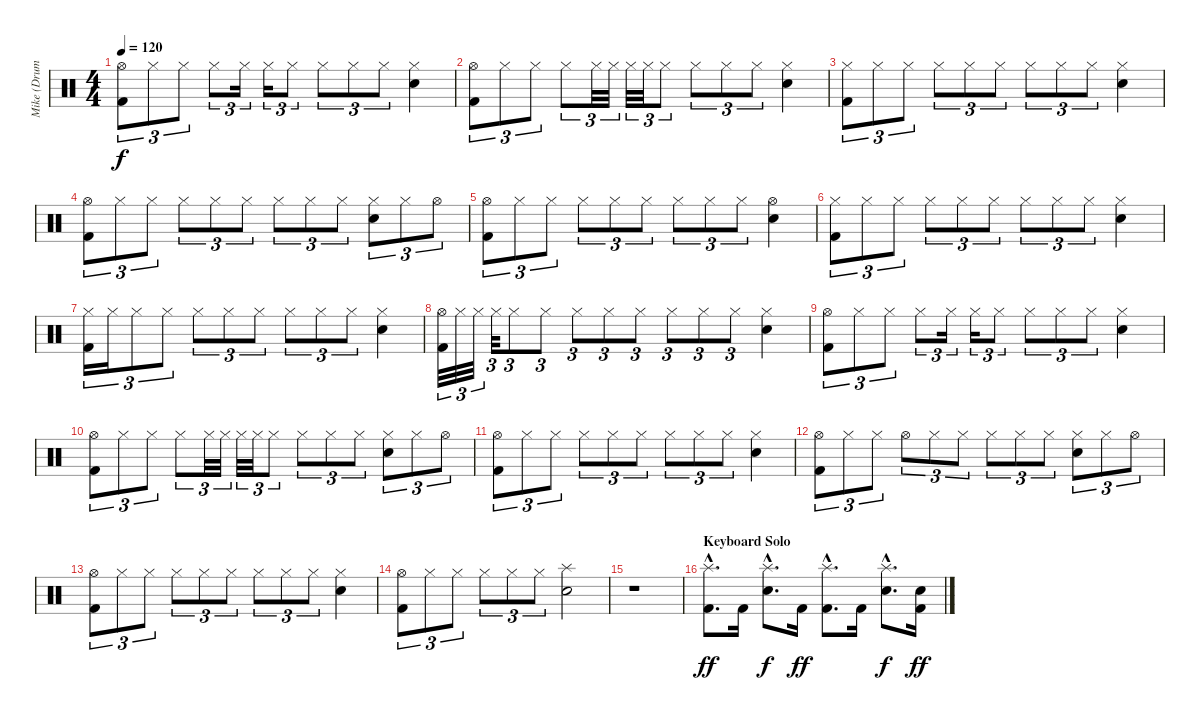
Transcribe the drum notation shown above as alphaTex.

\track ("Mike (Drums)" "Mike (Drum") {instrument percussion}
\staff {score}
\articulation defaults
\ts (4 4)
\tempo 120
\clef neutral
\ks c
("Hi-Hat (open)" "Kick (hit) 2").8{tu (3 2) dy f} "Hi-Hat (closed)".8{tu (3 2)} "Hi-Hat (closed)".8{tu (3 2)} "Hi-Hat (closed)".8{tu (3 2)} "Hi-Hat (closed)".16{tu (3 2)} "Hi-Hat (closed)".16{tu (3 2)} "Hi-Hat (closed)".8{tu (3 2)} "Hi-Hat (closed)".8{tu (3 2)} "Hi-Hat (closed)".8{tu (3 2)} "Hi-Hat (closed)".8{tu (3 2)} ("Hi-Hat (closed)" "Snare (hit) 2").4 |
("Hi-Hat (open)" "Kick (hit) 2").8{tu (3 2)} "Hi-Hat (closed)".8{tu (3 2)} "Hi-Hat (closed)".8{tu (3 2)} "Hi-Hat (closed)".8{tu (3 2)} "Hi-Hat (closed)".32{tu (3 2)} "Hi-Hat (closed)".32{tu (3 2)} "Hi-Hat (closed)".32{tu (3 2)} "Hi-Hat (closed)".32{tu (3 2)} "Hi-Hat (closed)".8{tu (3 2)} "Hi-Hat (closed)".8{tu (3 2)} "Hi-Hat (closed)".8{tu (3 2)} "Hi-Hat (closed)".8{tu (3 2)} ("Hi-Hat (closed)" "Snare (hit) 2").4 |
("Hi-Hat (closed)" "Kick (hit) 2").8{tu (3 2)} "Hi-Hat (closed)".8{tu (3 2)} "Hi-Hat (closed)".8{tu (3 2)} "Hi-Hat (closed)".8{tu (3 2)} "Hi-Hat (closed)".8{tu (3 2)} "Hi-Hat (closed)".8{tu (3 2)} "Hi-Hat (closed)".8{tu (3 2)} "Hi-Hat (closed)".8{tu (3 2)} "Hi-Hat (closed)".8{tu (3 2)} ("Hi-Hat (closed)" "Snare (hit) 2").4 |
("Hi-Hat (open)" "Kick (hit) 2").8{tu (3 2)} "Hi-Hat (closed)".8{tu (3 2)} "Hi-Hat (closed)".8{tu (3 2)} "Hi-Hat (closed)".8{tu (3 2)} "Hi-Hat (closed)".8{tu (3 2)} "Hi-Hat (closed)".8{tu (3 2)} "Hi-Hat (closed)".8{tu (3 2)} "Hi-Hat (closed)".8{tu (3 2)} "Hi-Hat (closed)".8{tu (3 2)} ("Hi-Hat (closed)" "Snare (hit) 2").8{tu (3 2)} "Hi-Hat (closed)".8{tu (3 2)} "Hi-Hat (open)".8{tu (3 2)} |
("Hi-Hat (open)" "Kick (hit) 2").8{tu (3 2)} "Hi-Hat (closed)".8{tu (3 2)} "Hi-Hat (closed)".8{tu (3 2)} "Hi-Hat (closed)".8{tu (3 2)} "Hi-Hat (closed)".8{tu (3 2)} "Hi-Hat (closed)".8{tu (3 2)} "Hi-Hat (closed)".8{tu (3 2)} "Hi-Hat (closed)".8{tu (3 2)} "Hi-Hat (closed)".8{tu (3 2)} ("Hi-Hat (open)" "Snare (hit) 2").4 |
("Hi-Hat (closed)" "Kick (hit) 2").8{tu (3 2)} "Hi-Hat (closed)".8{tu (3 2)} "Hi-Hat (closed)".8{tu (3 2)} "Hi-Hat (closed)".8{tu (3 2)} "Hi-Hat (closed)".8{tu (3 2)} "Hi-Hat (closed)".8{tu (3 2)} "Hi-Hat (closed)".8{tu (3 2)} "Hi-Hat (closed)".8{tu (3 2)} "Hi-Hat (closed)".8{tu (3 2)} ("Hi-Hat (closed)" "Snare (hit) 2").4 |
("Hi-Hat (closed)" "Kick (hit) 2").16{tu (3 2)} "Hi-Hat (closed)".16{tu (3 2)} "Hi-Hat (closed)".8{tu (3 2)} "Hi-Hat (closed)".8{tu (3 2)} "Hi-Hat (closed)".8{tu (3 2)} "Hi-Hat (closed)".8{tu (3 2)} "Hi-Hat (closed)".8{tu (3 2)} "Hi-Hat (closed)".8{tu (3 2)} "Hi-Hat (closed)".8{tu (3 2)} "Hi-Hat (closed)".8{tu (3 2)} ("Hi-Hat (closed)" "Snare (hit) 2").4 |
("Hi-Hat (open)" "Kick (hit) 2").32{tu (3 2)} "Hi-Hat (closed)".32{tu (3 2)} "Hi-Hat (closed)".32{tu (3 2)} "Hi-Hat (closed)".32{tu (3 2)} "Hi-Hat (closed)".8{tu (3 2)} "Hi-Hat (closed)".8{tu (3 2)} "Hi-Hat (closed)".8{tu (3 2)} "Hi-Hat (closed)".8{tu (3 2)} "Hi-Hat (closed)".8{tu (3 2)} "Hi-Hat (closed)".8{tu (3 2)} "Hi-Hat (closed)".8{tu (3 2)} "Hi-Hat (closed)".8{tu (3 2)} ("Hi-Hat (closed)" "Snare (hit) 2").4 |
("Hi-Hat (open)" "Kick (hit) 2").8{tu (3 2)} "Hi-Hat (closed)".8{tu (3 2)} "Hi-Hat (closed)".8{tu (3 2)} "Hi-Hat (closed)".8{tu (3 2)} "Hi-Hat (closed)".16{tu (3 2)} "Hi-Hat (closed)".16{tu (3 2)} "Hi-Hat (closed)".8{tu (3 2)} "Hi-Hat (closed)".8{tu (3 2)} "Hi-Hat (closed)".8{tu (3 2)} "Hi-Hat (closed)".8{tu (3 2)} ("Hi-Hat (closed)" "Snare (hit) 2").4 |
("Hi-Hat (open)" "Kick (hit) 2").8{tu (3 2)} "Hi-Hat (closed)".8{tu (3 2)} "Hi-Hat (closed)".8{tu (3 2)} "Hi-Hat (closed)".8{tu (3 2)} "Hi-Hat (closed)".32{tu (3 2)} "Hi-Hat (closed)".32{tu (3 2)} "Hi-Hat (closed)".32{tu (3 2)} "Hi-Hat (closed)".32{tu (3 2)} "Hi-Hat (closed)".8{tu (3 2)} "Hi-Hat (closed)".8{tu (3 2)} "Hi-Hat (closed)".8{tu (3 2)} "Hi-Hat (closed)".8{tu (3 2)} ("Hi-Hat (closed)" "Snare (hit) 2").8{tu (3 2)} "Hi-Hat (closed)".8{tu (3 2)} "Hi-Hat (open)".8{tu (3 2)} |
("Hi-Hat (open)" "Kick (hit) 2").8{tu (3 2)} "Hi-Hat (closed)".8{tu (3 2)} "Hi-Hat (closed)".8{tu (3 2)} "Hi-Hat (closed)".8{tu (3 2)} "Hi-Hat (closed)".8{tu (3 2)} "Hi-Hat (closed)".8{tu (3 2)} "Hi-Hat (closed)".8{tu (3 2)} "Hi-Hat (closed)".8{tu (3 2)} "Hi-Hat (closed)".8{tu (3 2)} ("Hi-Hat (closed)" "Snare (hit) 2").4 |
("Hi-Hat (open)" "Kick (hit) 2").8{tu (3 2)} "Hi-Hat (closed)".8{tu (3 2)} "Hi-Hat (closed)".8{tu (3 2)} "Hi-Hat (open)".8{tu (3 2)} "Hi-Hat (closed)".8{tu (3 2)} "Hi-Hat (closed)".8{tu (3 2)} "Hi-Hat (closed)".8{tu (3 2)} "Hi-Hat (closed)".8{tu (3 2)} "Hi-Hat (closed)".8{tu (3 2)} ("Hi-Hat (closed)" "Snare (hit) 2").8{tu (3 2)} "Hi-Hat (closed)".8{tu (3 2)} "Hi-Hat (open)".8{tu (3 2)} |
("Hi-Hat (open)" "Kick (hit) 2").8{tu (3 2)} "Hi-Hat (closed)".8{tu (3 2)} "Hi-Hat (closed)".8{tu (3 2)} "Hi-Hat (closed)".8{tu (3 2)} "Hi-Hat (closed)".8{tu (3 2)} "Hi-Hat (closed)".8{tu (3 2)} "Hi-Hat (closed)".8{tu (3 2)} "Hi-Hat (closed)".8{tu (3 2)} "Hi-Hat (closed)".8{tu (3 2)} ("Hi-Hat (closed)" "Snare (hit) 2").4 |
("Hi-Hat (open)" "Kick (hit) 2").8{tu (3 2)} "Hi-Hat (closed)".8{tu (3 2)} "Hi-Hat (closed)".8{tu (3 2)} "Hi-Hat (closed)".8{tu (3 2)} "Hi-Hat (closed)".8{tu (3 2)} "Hi-Hat (closed)".8{tu (3 2)} ("Splash (hit)" "Snare (hit) 2").2 |
r.1 |
\section ("" "Keyboard Solo")
("Splash (hit)"{hac} "Kick (hit) 2"{hac}).8{d dy ff} "Kick (hit) 2".16 ("Splash (hit)"{hac} "Electric Snare (hit)"{hac}).8{d dy f} "Kick (hit) 2".16{dy ff} ("Splash (hit)"{hac} "Kick (hit) 2"{hac}).8{d} "Kick (hit) 2".16 ("Splash (hit)"{hac} "Electric Snare (hit)"{hac}).8{d dy f} ("Snare (hit) 2" "Kick (hit) 2").16{dy ff}
